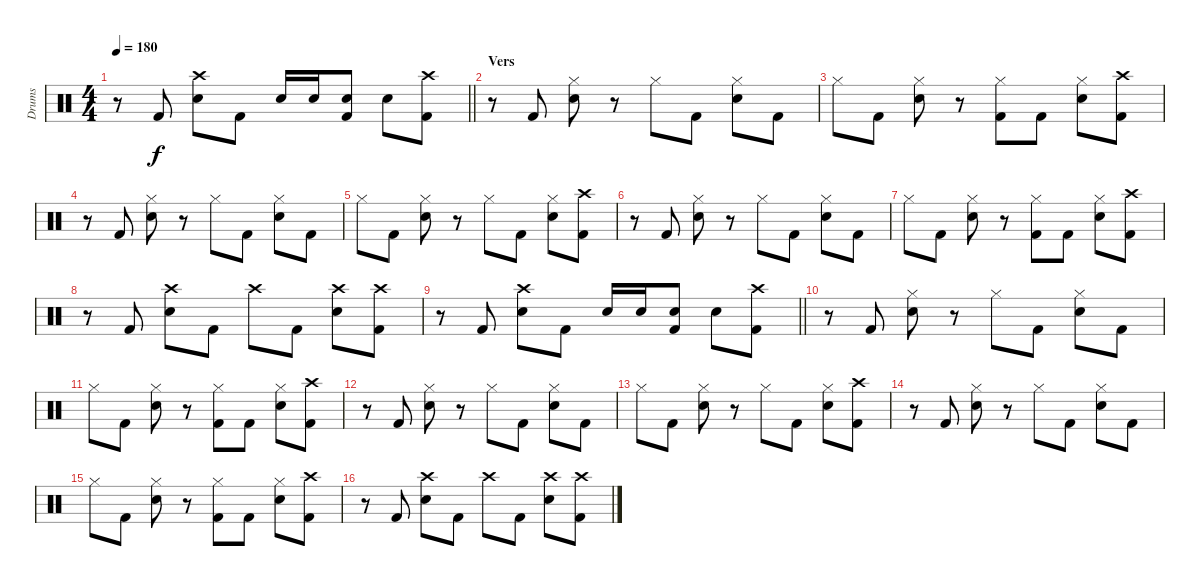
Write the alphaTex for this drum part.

\track ("Drums" "Drums") {instrument percussion}
\staff {score}
\articulation defaults
\ts (4 4)
\tempo 180
\clef neutral
\barLineRight lightlight
\ks c
r.8{dy f} "Kick (hit) 2".8 ("Crash high (hit)" "Snare (hit) 2").8 "Kick (hit) 2".8 "Snare (hit) 2".16 "Snare (hit) 2".16 ("Snare (hit) 2" "Kick (hit) 2").8 "Snare (hit) 2".8 ("Crash high (hit)" "Kick (hit) 2").8 |
\section ("" "Vers")
r.8 "Kick (hit) 2".8 ("Hi-Hat (closed)" "Snare (hit) 2").8 r.8 "Hi-Hat (closed)".8 "Kick (hit) 2".8 ("Hi-Hat (closed)" "Snare (hit) 2").8 "Kick (hit) 2".8 |
"Hi-Hat (closed)".8 "Kick (hit) 2".8 ("Hi-Hat (closed)" "Snare (hit) 2").8 r.8 ("Hi-Hat (closed)" "Kick (hit) 2").8 "Kick (hit) 2".8 ("Hi-Hat (closed)" "Snare (hit) 2").8 ("Crash high (hit)" "Kick (hit) 2").8 |
r.8 "Kick (hit) 2".8 ("Hi-Hat (closed)" "Snare (hit) 2").8 r.8 "Hi-Hat (closed)".8 "Kick (hit) 2".8 ("Hi-Hat (closed)" "Snare (hit) 2").8 "Kick (hit) 2".8 |
"Hi-Hat (closed)".8 "Kick (hit) 2".8 ("Hi-Hat (closed)" "Snare (hit) 2").8 r.8 "Hi-Hat (closed)".8 "Kick (hit) 2".8 ("Hi-Hat (closed)" "Snare (hit) 2").8 ("Crash high (hit)" "Kick (hit) 2").8 |
r.8 "Kick (hit) 2".8 ("Hi-Hat (closed)" "Snare (hit) 2").8 r.8 "Hi-Hat (closed)".8 "Kick (hit) 2".8 ("Hi-Hat (closed)" "Snare (hit) 2").8 "Kick (hit) 2".8 |
"Hi-Hat (closed)".8 "Kick (hit) 2".8 ("Hi-Hat (closed)" "Snare (hit) 2").8 r.8 ("Hi-Hat (closed)" "Kick (hit) 2").8 "Kick (hit) 2".8 ("Hi-Hat (closed)" "Snare (hit) 2").8 ("Crash high (hit)" "Kick (hit) 2").8 |
r.8 "Kick (hit) 2".8 ("Crash high (hit)" "Snare (hit) 2").8 "Kick (hit) 2".8 "Crash high (hit)".8 "Kick (hit) 2".8 ("Crash high (hit)" "Snare (hit) 2").8 ("Crash high (hit)" "Kick (hit) 2").8 |
\barLineRight lightlight
r.8 "Kick (hit) 2".8 ("Crash high (hit)" "Snare (hit) 2").8 "Kick (hit) 2".8 "Snare (hit) 2".16 "Snare (hit) 2".16 ("Snare (hit) 2" "Kick (hit) 2").8 "Snare (hit) 2".8 ("Crash high (hit)" "Kick (hit) 2").8 |
r.8 "Kick (hit) 2".8 ("Hi-Hat (closed)" "Snare (hit) 2").8 r.8 "Hi-Hat (closed)".8 "Kick (hit) 2".8 ("Hi-Hat (closed)" "Snare (hit) 2").8 "Kick (hit) 2".8 |
"Hi-Hat (closed)".8 "Kick (hit) 2".8 ("Hi-Hat (closed)" "Snare (hit) 2").8 r.8 ("Hi-Hat (closed)" "Kick (hit) 2").8 "Kick (hit) 2".8 ("Hi-Hat (closed)" "Snare (hit) 2").8 ("Crash high (hit)" "Kick (hit) 2").8 |
r.8 "Kick (hit) 2".8 ("Hi-Hat (closed)" "Snare (hit) 2").8 r.8 "Hi-Hat (closed)".8 "Kick (hit) 2".8 ("Hi-Hat (closed)" "Snare (hit) 2").8 "Kick (hit) 2".8 |
"Hi-Hat (closed)".8 "Kick (hit) 2".8 ("Hi-Hat (closed)" "Snare (hit) 2").8 r.8 "Hi-Hat (closed)".8 "Kick (hit) 2".8 ("Hi-Hat (closed)" "Snare (hit) 2").8 ("Crash high (hit)" "Kick (hit) 2").8 |
r.8 "Kick (hit) 2".8 ("Hi-Hat (closed)" "Snare (hit) 2").8 r.8 "Hi-Hat (closed)".8 "Kick (hit) 2".8 ("Hi-Hat (closed)" "Snare (hit) 2").8 "Kick (hit) 2".8 |
"Hi-Hat (closed)".8 "Kick (hit) 2".8 ("Hi-Hat (closed)" "Snare (hit) 2").8 r.8 ("Hi-Hat (closed)" "Kick (hit) 2").8 "Kick (hit) 2".8 ("Hi-Hat (closed)" "Snare (hit) 2").8 ("Crash high (hit)" "Kick (hit) 2").8 |
r.8 "Kick (hit) 2".8 ("Crash high (hit)" "Snare (hit) 2").8 "Kick (hit) 2".8 "Crash high (hit)".8 "Kick (hit) 2".8 ("Crash high (hit)" "Snare (hit) 2").8 ("Crash high (hit)" "Kick (hit) 2").8
